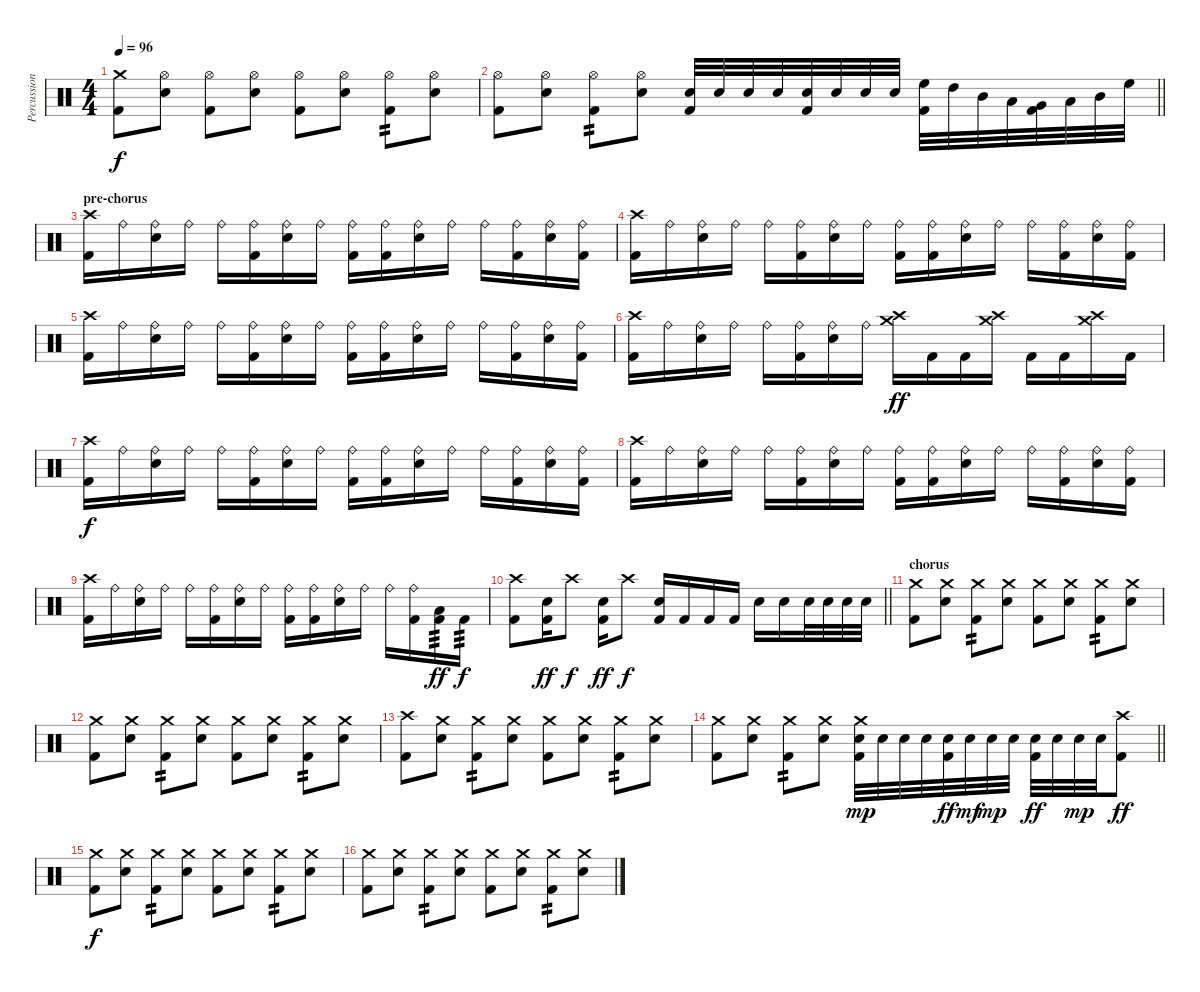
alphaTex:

\track ("Percussion" "Percussion") {instrument percussion}
\staff {score}
\articulation defaults
\ts (4 4)
\tempo 96
\clef neutral
\ks c
("Crash medium (hit)" "Kick (hit) 2").8{dy f} ("Hi-Hat (open)" "Electric Snare (hit)").8 ("Hi-Hat (open)" "Kick (hit) 2").8 ("Hi-Hat (open)" "Electric Snare (hit)").8 ("Hi-Hat (open)" "Kick (hit) 2").8 ("Hi-Hat (open)" "Electric Snare (hit)").8 ("Hi-Hat (open)" "Kick (hit) 2").8{tp 2} ("Hi-Hat (open)" "Electric Snare (hit)").8 |
\barLineRight lightlight
("Hi-Hat (open)" "Kick (hit) 2").8 ("Hi-Hat (open)" "Electric Snare (hit)").8 ("Hi-Hat (open)" "Kick (hit) 2").8{tp 2} ("Hi-Hat (open)" "Electric Snare (hit)").8 ("Electric Snare (hit)" "Kick (hit) 2").32 "Electric Snare (hit)".32 "Electric Snare (hit)".32 "Electric Snare (hit)".32 ("Electric Snare (hit)" "Kick (hit) 2").32 "Electric Snare (hit)".32 "Electric Snare (hit)".32 "Electric Snare (hit)".32 ("High Floor Tom (hit)" "Kick (hit) 2").32 "High Tom (hit)".32 "Mid Tom (hit)".32 "Low Tom (hit)".32 ("Very Low Tom (hit)" "Kick (hit) 2").32 "Low Tom (hit)".32 "Mid Tom (hit)".32 "High Floor Tom (hit)".32 |
\section ("" "pre-chorus")
("Crash high (hit)" "Kick (hit) 2").16 "Ride (bell)".16 ("Ride (bell)" "Electric Snare (hit)").16 "Ride (bell)".16 "Ride (bell)".16 ("Ride (bell)" "Kick (hit) 2").16 ("Ride (bell)" "Electric Snare (hit)").16 "Ride (bell)".16 ("Ride (bell)" "Kick (hit) 2").16 ("Ride (bell)" "Kick (hit) 2").16 ("Ride (bell)" "Electric Snare (hit)").16 "Ride (bell)".16 "Ride (bell)".16 ("Ride (bell)" "Kick (hit) 2").16 ("Ride (bell)" "Electric Snare (hit)").16 ("Ride (bell)" "Kick (hit) 2").16 |
("Crash high (hit)" "Kick (hit) 2").16 "Ride (bell)".16 ("Ride (bell)" "Electric Snare (hit)").16 "Ride (bell)".16 "Ride (bell)".16 ("Ride (bell)" "Kick (hit) 2").16 ("Ride (bell)" "Electric Snare (hit)").16 "Ride (bell)".16 ("Ride (bell)" "Kick (hit) 2").16 ("Ride (bell)" "Kick (hit) 2").16 ("Ride (bell)" "Electric Snare (hit)").16 "Ride (bell)".16 "Ride (bell)".16 ("Ride (bell)" "Kick (hit) 2").16 ("Ride (bell)" "Electric Snare (hit)").16 ("Ride (bell)" "Kick (hit) 2").16 |
("Crash high (hit)" "Kick (hit) 2").16 "Ride (bell)".16 ("Ride (bell)" "Electric Snare (hit)").16 "Ride (bell)".16 "Ride (bell)".16 ("Ride (bell)" "Kick (hit) 2").16 ("Ride (bell)" "Electric Snare (hit)").16 "Ride (bell)".16 ("Ride (bell)" "Kick (hit) 2").16 ("Ride (bell)" "Kick (hit) 2").16 ("Ride (bell)" "Electric Snare (hit)").16 "Ride (bell)".16 "Ride (bell)".16 ("Ride (bell)" "Kick (hit) 2").16 ("Ride (bell)" "Electric Snare (hit)").16 ("Ride (bell)" "Kick (hit) 2").16 |
("Crash high (hit)" "Kick (hit) 2").16 "Ride (bell)".16 ("Ride (bell)" "Electric Snare (hit)").16 "Ride (bell)".16 "Ride (bell)".16 ("Ride (bell)" "Kick (hit) 2").16 ("Ride (bell)" "Electric Snare (hit)").16 "Ride (bell)".16 ("Crash high (hit)" "Crash medium (hit)").16{dy ff} "Kick (hit) 2".16 "Kick (hit) 2".16 ("Crash high (hit)" "Crash medium (hit)").16 "Kick (hit) 2".16 "Kick (hit) 2".16 ("Crash high (hit)" "Crash medium (hit)").16 "Kick (hit) 2".16 |
("Crash high (hit)" "Kick (hit) 2").16{dy f} "Ride (bell)".16 ("Ride (bell)" "Electric Snare (hit)").16 "Ride (bell)".16 "Ride (bell)".16 ("Ride (bell)" "Kick (hit) 2").16 ("Ride (bell)" "Electric Snare (hit)").16 "Ride (bell)".16 ("Ride (bell)" "Kick (hit) 2").16 ("Ride (bell)" "Kick (hit) 2").16 ("Ride (bell)" "Electric Snare (hit)").16 "Ride (bell)".16 "Ride (bell)".16 ("Ride (bell)" "Kick (hit) 2").16 ("Ride (bell)" "Electric Snare (hit)").16 ("Ride (bell)" "Kick (hit) 2").16 |
("Crash high (hit)" "Kick (hit) 2").16 "Ride (bell)".16 ("Ride (bell)" "Electric Snare (hit)").16 "Ride (bell)".16 "Ride (bell)".16 ("Ride (bell)" "Kick (hit) 2").16 ("Ride (bell)" "Electric Snare (hit)").16 "Ride (bell)".16 ("Ride (bell)" "Kick (hit) 2").16 ("Ride (bell)" "Kick (hit) 2").16 ("Ride (bell)" "Electric Snare (hit)").16 "Ride (bell)".16 "Ride (bell)".16 ("Ride (bell)" "Kick (hit) 2").16 ("Ride (bell)" "Electric Snare (hit)").16 ("Ride (bell)" "Kick (hit) 2").16 |
("Crash high (hit)" "Kick (hit) 2").16 "Ride (bell)".16 ("Ride (bell)" "Electric Snare (hit)").16 "Ride (bell)".16 "Ride (bell)".16 ("Ride (bell)" "Kick (hit) 2").16 ("Ride (bell)" "Electric Snare (hit)").16 "Ride (bell)".16 ("Ride (bell)" "Kick (hit) 2").16 ("Ride (bell)" "Kick (hit) 2").16 ("Ride (bell)" "Electric Snare (hit)").16 "Ride (bell)".16 "Ride (bell)".16 ("Ride (bell)" "Kick (hit) 2").16 ("Low Tom (hit)" "Kick (hit) 2").16{tp 3 dy ff} "Kick (hit) 2".16{tp 3 dy f} |
\barLineRight lightlight
("Crash high (hit)" "Kick (hit) 2").8 ("Electric Snare (hit)" "Kick (hit) 2").16{dy ff} "Crash high (hit)".8{dy f} ("Electric Snare (hit)" "Kick (hit) 2").16{dy ff} "Crash high (hit)".8{dy f} ("Electric Snare (hit)" "Kick (hit) 2").16 "Kick (hit) 2".16 "Kick (hit) 2".16 "Kick (hit) 2".16 "Electric Snare (hit)".16 "Electric Snare (hit)".16 "Electric Snare (hit)".32 "Electric Snare (hit)".32 "Electric Snare (hit)".32 "Electric Snare (hit)".32 |
\section ("" "chorus")
("Crash medium (hit)" "Kick (hit) 2").8 ("Crash medium (hit)" "Electric Snare (hit)").8 ("Crash medium (hit)" "Kick (hit) 2").8{tp 2} ("Crash medium (hit)" "Electric Snare (hit)").8 ("Crash medium (hit)" "Kick (hit) 2").8 ("Crash medium (hit)" "Electric Snare (hit)").8 ("Crash medium (hit)" "Kick (hit) 2").8{tp 2} ("Crash medium (hit)" "Electric Snare (hit)").8 |
("Crash medium (hit)" "Kick (hit) 2").8 ("Crash medium (hit)" "Electric Snare (hit)").8 ("Crash medium (hit)" "Kick (hit) 2").8{tp 2} ("Crash medium (hit)" "Electric Snare (hit)").8 ("Crash medium (hit)" "Kick (hit) 2").8 ("Crash medium (hit)" "Electric Snare (hit)").8 ("Crash medium (hit)" "Kick (hit) 2").8{tp 2} ("Crash medium (hit)" "Electric Snare (hit)").8 |
("Crash high (hit)" "Kick (hit) 2").8 ("Crash medium (hit)" "Electric Snare (hit)").8 ("Crash medium (hit)" "Kick (hit) 2").8{tp 2} ("Crash medium (hit)" "Electric Snare (hit)").8 ("Crash medium (hit)" "Kick (hit) 2").8 ("Crash medium (hit)" "Electric Snare (hit)").8 ("Crash medium (hit)" "Kick (hit) 2").8{tp 2} ("Crash medium (hit)" "Electric Snare (hit)").8 |
\barLineRight lightlight
("Crash medium (hit)" "Kick (hit) 2").8 ("Crash medium (hit)" "Electric Snare (hit)").8 ("Crash medium (hit)" "Kick (hit) 2").8{tp 2} ("Crash medium (hit)" "Electric Snare (hit)").8 ("Crash medium (hit)" "Electric Snare (hit)" "Kick (hit) 2").32{dy mp} "Electric Snare (hit)".32 "Electric Snare (hit)".32 "Electric Snare (hit)".32 ("Electric Snare (hit)" "Kick (hit) 2").32{dy ff} "Electric Snare (hit)".32{dy mf} "Electric Snare (hit)".32{dy mp} "Electric Snare (hit)".32 ("Electric Snare (hit)" "Kick (hit) 2").32{dy ff} "Electric Snare (hit)".32 "Electric Snare (hit)".32{dy mp} "Electric Snare (hit)".32 ("Crash high (hit)" "Kick (hit) 2").8{dy ff} |
("Crash medium (hit)" "Kick (hit) 2").8{dy f} ("Crash medium (hit)" "Electric Snare (hit)").8 ("Crash medium (hit)" "Kick (hit) 2").8{tp 2} ("Crash medium (hit)" "Electric Snare (hit)").8 ("Crash medium (hit)" "Kick (hit) 2").8 ("Crash medium (hit)" "Electric Snare (hit)").8 ("Crash medium (hit)" "Kick (hit) 2").8{tp 2} ("Crash medium (hit)" "Electric Snare (hit)").8 |
("Crash medium (hit)" "Kick (hit) 2").8 ("Crash medium (hit)" "Electric Snare (hit)").8 ("Crash medium (hit)" "Kick (hit) 2").8{tp 2} ("Crash medium (hit)" "Electric Snare (hit)").8 ("Crash medium (hit)" "Kick (hit) 2").8 ("Crash medium (hit)" "Electric Snare (hit)").8 ("Crash medium (hit)" "Kick (hit) 2").8{tp 2} ("Crash medium (hit)" "Electric Snare (hit)").8
